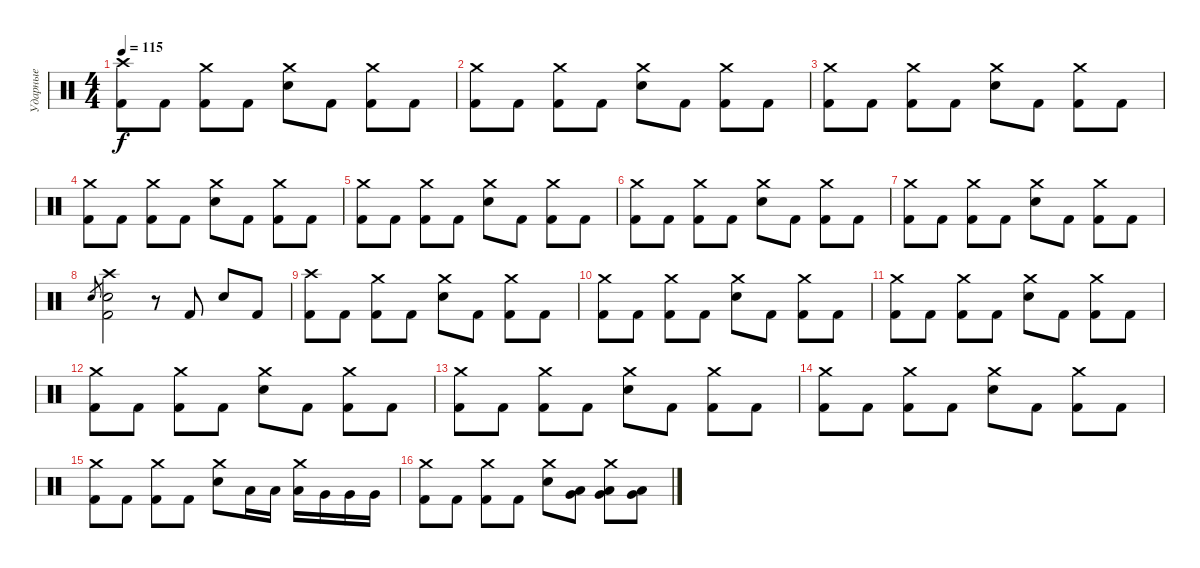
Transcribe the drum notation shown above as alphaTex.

\track ("Ударные" "Ударные") {instrument percussion}
\staff {score}
\articulation defaults
\ts (4 4)
\tempo 115
\clef neutral
\ks c
("Crash high (hit)" "Kick (hit) 2").8{dy f} "Kick (hit) 2".8 ("Crash medium (hit)" "Kick (hit) 2").8 "Kick (hit) 2".8 ("Crash medium (hit)" "Electric Snare (hit)").8 "Kick (hit) 2".8 ("Crash medium (hit)" "Kick (hit) 2").8 "Kick (hit) 2".8 |
("Crash medium (hit)" "Kick (hit) 2").8 "Kick (hit) 2".8 ("Crash medium (hit)" "Kick (hit) 2").8 "Kick (hit) 2".8 ("Crash medium (hit)" "Electric Snare (hit)").8 "Kick (hit) 2".8 ("Crash medium (hit)" "Kick (hit) 2").8 "Kick (hit) 2".8 |
("Crash medium (hit)" "Kick (hit) 2").8 "Kick (hit) 2".8 ("Crash medium (hit)" "Kick (hit) 2").8 "Kick (hit) 2".8 ("Crash medium (hit)" "Electric Snare (hit)").8 "Kick (hit) 2".8 ("Crash medium (hit)" "Kick (hit) 2").8 "Kick (hit) 2".8 |
("Crash medium (hit)" "Kick (hit) 2").8 "Kick (hit) 2".8 ("Crash medium (hit)" "Kick (hit) 2").8 "Kick (hit) 2".8 ("Crash medium (hit)" "Electric Snare (hit)").8 "Kick (hit) 2".8 ("Crash medium (hit)" "Kick (hit) 2").8 "Kick (hit) 2".8 |
("Crash medium (hit)" "Kick (hit) 2").8 "Kick (hit) 2".8 ("Crash medium (hit)" "Kick (hit) 2").8 "Kick (hit) 2".8 ("Crash medium (hit)" "Electric Snare (hit)").8 "Kick (hit) 2".8 ("Crash medium (hit)" "Kick (hit) 2").8 "Kick (hit) 2".8 |
("Crash medium (hit)" "Kick (hit) 2").8 "Kick (hit) 2".8 ("Crash medium (hit)" "Kick (hit) 2").8 "Kick (hit) 2".8 ("Crash medium (hit)" "Electric Snare (hit)").8 "Kick (hit) 2".8 ("Crash medium (hit)" "Kick (hit) 2").8 "Kick (hit) 2".8 |
("Crash medium (hit)" "Kick (hit) 2").8 "Kick (hit) 2".8 ("Crash medium (hit)" "Kick (hit) 2").8 "Kick (hit) 2".8 ("Crash medium (hit)" "Electric Snare (hit)").8 "Kick (hit) 2".8 ("Crash medium (hit)" "Kick (hit) 2").8 "Kick (hit) 2".8 |
"Electric Snare (hit)".8{gr} ("Crash high (hit)" "Electric Snare (hit)" "Kick (hit) 2").2 r.8 "Kick (hit) 2".8 "Electric Snare (hit)".8 "Kick (hit) 2".8 |
("Crash high (hit)" "Kick (hit) 2").8 "Kick (hit) 2".8 ("Crash medium (hit)" "Kick (hit) 2").8 "Kick (hit) 2".8 ("Crash medium (hit)" "Electric Snare (hit)").8 "Kick (hit) 2".8 ("Crash medium (hit)" "Kick (hit) 2").8 "Kick (hit) 2".8 |
("Crash medium (hit)" "Kick (hit) 2").8 "Kick (hit) 2".8 ("Crash medium (hit)" "Kick (hit) 2").8 "Kick (hit) 2".8 ("Crash medium (hit)" "Electric Snare (hit)").8 "Kick (hit) 2".8 ("Crash medium (hit)" "Kick (hit) 2").8 "Kick (hit) 2".8 |
("Crash medium (hit)" "Kick (hit) 2").8 "Kick (hit) 2".8 ("Crash medium (hit)" "Kick (hit) 2").8 "Kick (hit) 2".8 ("Crash medium (hit)" "Electric Snare (hit)").8 "Kick (hit) 2".8 ("Crash medium (hit)" "Kick (hit) 2").8 "Kick (hit) 2".8 |
("Crash medium (hit)" "Kick (hit) 2").8 "Kick (hit) 2".8 ("Crash medium (hit)" "Kick (hit) 2").8 "Kick (hit) 2".8 ("Crash medium (hit)" "Electric Snare (hit)").8 "Kick (hit) 2".8 ("Crash medium (hit)" "Kick (hit) 2").8 "Kick (hit) 2".8 |
("Crash medium (hit)" "Kick (hit) 2").8 "Kick (hit) 2".8 ("Crash medium (hit)" "Kick (hit) 2").8 "Kick (hit) 2".8 ("Crash medium (hit)" "Electric Snare (hit)").8 "Kick (hit) 2".8 ("Crash medium (hit)" "Kick (hit) 2").8 "Kick (hit) 2".8 |
("Crash medium (hit)" "Kick (hit) 2").8 "Kick (hit) 2".8 ("Crash medium (hit)" "Kick (hit) 2").8 "Kick (hit) 2".8 ("Crash medium (hit)" "Electric Snare (hit)").8 "Kick (hit) 2".8 ("Crash medium (hit)" "Kick (hit) 2").8 "Kick (hit) 2".8 |
("Crash medium (hit)" "Kick (hit) 2").8 "Kick (hit) 2".8 ("Crash medium (hit)" "Kick (hit) 2").8 "Kick (hit) 2".8 ("Crash medium (hit)" "Electric Snare (hit)").8 "Low Tom (hit)".16 "Low Tom (hit)".16 ("Crash medium (hit)" "Low Tom (hit)").16 "Very Low Tom (hit)".16 "Very Low Tom (hit)".16 "Very Low Tom (hit)".16 |
("Crash medium (hit)" "Kick (hit) 2").8 "Kick (hit) 2".8 ("Crash medium (hit)" "Kick (hit) 2").8 "Kick (hit) 2".8 ("Crash medium (hit)" "Electric Snare (hit)").8 ("Low Tom (hit)" "Very Low Tom (hit)").8 ("Crash medium (hit)" "Low Tom (hit)" "Very Low Tom (hit)").8 ("Low Tom (hit)" "Very Low Tom (hit)").8
